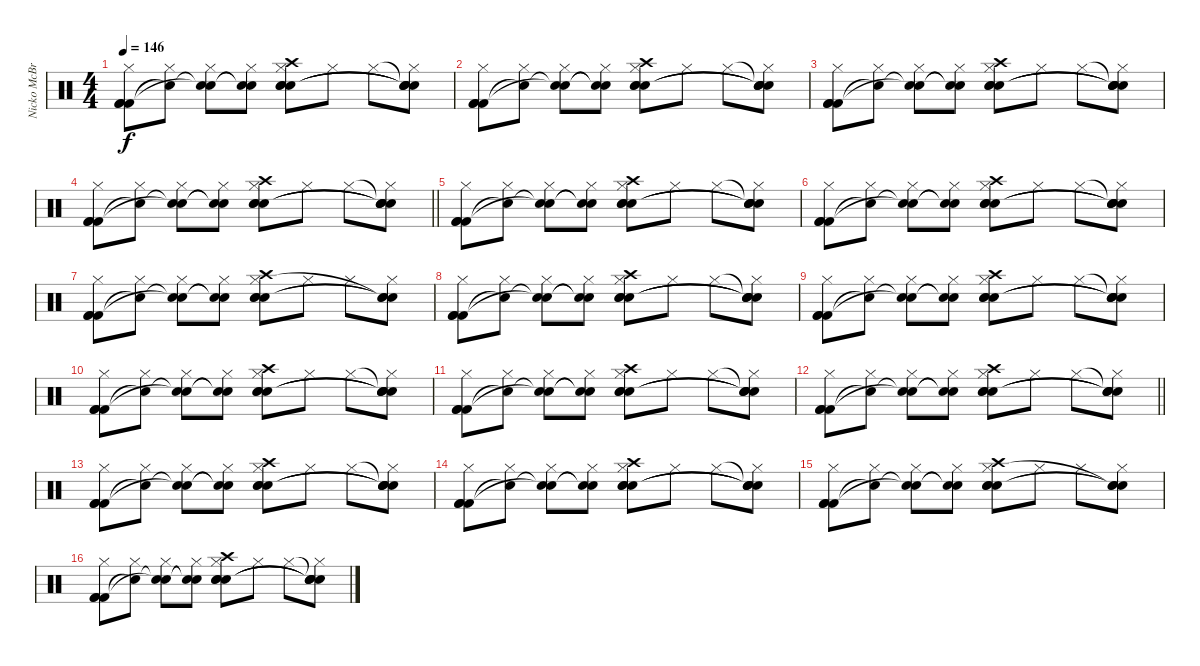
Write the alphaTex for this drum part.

\track ("Nicko McBrain" "Nicko McBr") {instrument percussion}
\staff {score}
\articulation defaults
\ts (4 4)
\tempo 146
\clef neutral
\ks c
("Hi-Hat (closed)" "Kick (hit) 2" "Kick (hit) 2" "Kick (hit) 2").8{dy f} ("Hi-Hat (closed)" "Snare (hit)"{t}).8 ("Hi-Hat (closed)" "Snare (hit)"{t} "Snare (hit)"{t}).8 ("Hi-Hat (closed)" "Snare (hit)"{t} "Snare (hit)"{t}).8 ("Crash high (hit)" "Hi-Hat (closed)" "Snare (hit) 2" "Snare (hit) 2" "Snare (hit) 2").8 "Hi-Hat (closed)".8 "Hi-Hat (closed)".8 ("Snare (hit)"{t} "Hi-Hat (closed)" "Snare (hit)"{t} "Snare (hit)"{t} "Snare (hit)"{t}).8 |
("Hi-Hat (closed)" "Kick (hit) 2" "Kick (hit) 2" "Kick (hit) 2").8 ("Hi-Hat (closed)" "Snare (hit)"{t}).8 ("Hi-Hat (closed)" "Snare (hit)"{t} "Snare (hit)"{t}).8 ("Hi-Hat (closed)" "Snare (hit)"{t} "Snare (hit)"{t}).8 ("Crash high (hit)" "Hi-Hat (closed)" "Snare (hit) 2" "Snare (hit) 2" "Snare (hit) 2").8 "Hi-Hat (closed)".8 "Hi-Hat (closed)".8 ("Snare (hit)"{t} "Hi-Hat (closed)" "Snare (hit)"{t} "Snare (hit)"{t} "Snare (hit)"{t}).8 |
("Hi-Hat (closed)" "Kick (hit) 2" "Kick (hit) 2" "Kick (hit) 2").8 ("Hi-Hat (closed)" "Snare (hit)"{t}).8 ("Hi-Hat (closed)" "Snare (hit)"{t} "Snare (hit)"{t}).8 ("Hi-Hat (closed)" "Snare (hit)"{t} "Snare (hit)"{t}).8 ("Crash high (hit)" "Hi-Hat (closed)" "Snare (hit) 2" "Snare (hit) 2" "Snare (hit) 2").8 "Hi-Hat (closed)".8 "Hi-Hat (closed)".8 ("Snare (hit)"{t} "Hi-Hat (closed)" "Snare (hit)"{t} "Snare (hit)"{t} "Snare (hit)"{t}).8 |
\barLineRight lightlight
("Hi-Hat (closed)" "Kick (hit) 2" "Kick (hit) 2" "Kick (hit) 2").8 ("Hi-Hat (closed)" "Snare (hit)"{t}).8 ("Hi-Hat (closed)" "Snare (hit)"{t} "Snare (hit)"{t}).8 ("Hi-Hat (closed)" "Snare (hit)"{t} "Snare (hit)"{t}).8 ("Crash high (hit)" "Hi-Hat (closed)" "Snare (hit) 2" "Snare (hit) 2" "Snare (hit) 2").8 "Hi-Hat (closed)".8 "Hi-Hat (closed)".8 ("Snare (hit)"{t} "Hi-Hat (closed)" "Snare (hit)"{t} "Snare (hit)"{t} "Snare (hit)"{t}).8 |
("Hi-Hat (closed)" "Kick (hit) 2" "Kick (hit) 2" "Kick (hit) 2").8 ("Hi-Hat (closed)" "Snare (hit)"{t}).8 ("Hi-Hat (closed)" "Snare (hit)"{t} "Snare (hit)"{t}).8 ("Hi-Hat (closed)" "Snare (hit)"{t} "Snare (hit)"{t}).8 ("Crash high (hit)" "Hi-Hat (closed)" "Snare (hit) 2" "Snare (hit) 2" "Snare (hit) 2").8 "Hi-Hat (closed)".8 "Hi-Hat (closed)".8 ("Snare (hit)"{t} "Hi-Hat (closed)" "Snare (hit)"{t} "Snare (hit)"{t} "Snare (hit)"{t}).8 |
("Hi-Hat (closed)" "Kick (hit) 2" "Kick (hit) 2" "Kick (hit) 2").8 ("Hi-Hat (closed)" "Snare (hit)"{t}).8 ("Hi-Hat (closed)" "Snare (hit)"{t} "Snare (hit)"{t}).8 ("Hi-Hat (closed)" "Snare (hit)"{t} "Snare (hit)"{t}).8 ("Crash high (hit)" "Hi-Hat (closed)" "Snare (hit) 2" "Snare (hit) 2" "Snare (hit) 2").8 "Hi-Hat (closed)".8 "Hi-Hat (closed)".8 ("Snare (hit)"{t} "Hi-Hat (closed)" "Snare (hit)"{t} "Snare (hit)"{t} "Snare (hit)"{t}).8 |
("Hi-Hat (closed)" "Kick (hit) 2" "Kick (hit) 2" "Kick (hit) 2").8 ("Hi-Hat (closed)" "Snare (hit)"{t}).8 ("Hi-Hat (closed)" "Snare (hit)"{t} "Snare (hit)"{t}).8 ("Hi-Hat (closed)" "Snare (hit)"{t} "Snare (hit)"{t}).8 ("Crash high (hit)" "Hi-Hat (closed)" "Snare (hit) 2" "Snare (hit) 2" "Snare (hit) 2").8 "Hi-Hat (closed)".8 "Hi-Hat (closed)".8 ("Hi-Hat (closed)" "Snare (hit)"{t} "Snare (hit)"{t} "Snare (hit)"{t}).8 |
("Hi-Hat (closed)" "Kick (hit) 2" "Kick (hit) 2" "Kick (hit) 2").8 ("Hi-Hat (closed)" "Snare (hit)"{t}).8 ("Hi-Hat (closed)" "Snare (hit)"{t} "Snare (hit)"{t}).8 ("Hi-Hat (closed)" "Snare (hit)"{t} "Snare (hit)"{t}).8 ("Crash high (hit)" "Hi-Hat (closed)" "Snare (hit) 2" "Snare (hit) 2" "Snare (hit) 2").8 "Hi-Hat (closed)".8 "Hi-Hat (closed)".8 ("Snare (hit)"{t} "Hi-Hat (closed)" "Snare (hit)"{t} "Snare (hit)"{t} "Snare (hit)"{t}).8 |
("Hi-Hat (closed)" "Kick (hit) 2" "Kick (hit) 2" "Kick (hit) 2").8 ("Hi-Hat (closed)" "Snare (hit)"{t}).8 ("Hi-Hat (closed)" "Snare (hit)"{t} "Snare (hit)"{t}).8 ("Hi-Hat (closed)" "Snare (hit)"{t} "Snare (hit)"{t}).8 ("Crash high (hit)" "Hi-Hat (closed)" "Snare (hit) 2" "Snare (hit) 2" "Snare (hit) 2").8 "Hi-Hat (closed)".8 "Hi-Hat (closed)".8 ("Snare (hit)"{t} "Hi-Hat (closed)" "Snare (hit)"{t} "Snare (hit)"{t} "Snare (hit)"{t}).8 |
("Hi-Hat (closed)" "Kick (hit) 2" "Kick (hit) 2" "Kick (hit) 2").8 ("Hi-Hat (closed)" "Snare (hit)"{t}).8 ("Hi-Hat (closed)" "Snare (hit)"{t} "Snare (hit)"{t}).8 ("Hi-Hat (closed)" "Snare (hit)"{t} "Snare (hit)"{t}).8 ("Crash high (hit)" "Hi-Hat (closed)" "Snare (hit) 2" "Snare (hit) 2" "Snare (hit) 2").8 "Hi-Hat (closed)".8 "Hi-Hat (closed)".8 ("Snare (hit)"{t} "Hi-Hat (closed)" "Snare (hit)"{t} "Snare (hit)"{t} "Snare (hit)"{t}).8 |
("Hi-Hat (closed)" "Kick (hit) 2" "Kick (hit) 2" "Kick (hit) 2").8 ("Hi-Hat (closed)" "Snare (hit)"{t}).8 ("Hi-Hat (closed)" "Snare (hit)"{t} "Snare (hit)"{t}).8 ("Hi-Hat (closed)" "Snare (hit)"{t} "Snare (hit)"{t}).8 ("Crash high (hit)" "Hi-Hat (closed)" "Snare (hit) 2" "Snare (hit) 2" "Snare (hit) 2").8 "Hi-Hat (closed)".8 "Hi-Hat (closed)".8 ("Snare (hit)"{t} "Hi-Hat (closed)" "Snare (hit)"{t} "Snare (hit)"{t} "Snare (hit)"{t}).8 |
\barLineRight lightlight
("Hi-Hat (closed)" "Kick (hit) 2" "Kick (hit) 2" "Kick (hit) 2").8 ("Hi-Hat (closed)" "Snare (hit)"{t}).8 ("Hi-Hat (closed)" "Snare (hit)"{t} "Snare (hit)"{t}).8 ("Hi-Hat (closed)" "Snare (hit)"{t} "Snare (hit)"{t}).8 ("Crash high (hit)" "Hi-Hat (closed)" "Snare (hit) 2" "Snare (hit) 2" "Snare (hit) 2").8 "Hi-Hat (closed)".8 "Hi-Hat (closed)".8 ("Snare (hit)"{t} "Hi-Hat (closed)" "Snare (hit)"{t} "Snare (hit)"{t} "Snare (hit)"{t}).8 |
("Hi-Hat (closed)" "Kick (hit) 2" "Kick (hit) 2" "Kick (hit) 2").8 ("Hi-Hat (closed)" "Snare (hit)"{t}).8 ("Hi-Hat (closed)" "Snare (hit)"{t} "Snare (hit)"{t}).8 ("Hi-Hat (closed)" "Snare (hit)"{t} "Snare (hit)"{t}).8 ("Crash high (hit)" "Hi-Hat (closed)" "Snare (hit) 2" "Snare (hit) 2" "Snare (hit) 2").8 "Hi-Hat (closed)".8 "Hi-Hat (closed)".8 ("Snare (hit)"{t} "Hi-Hat (closed)" "Snare (hit)"{t} "Snare (hit)"{t} "Snare (hit)"{t}).8 |
("Hi-Hat (closed)" "Kick (hit) 2" "Kick (hit) 2" "Kick (hit) 2").8 ("Hi-Hat (closed)" "Snare (hit)"{t}).8 ("Hi-Hat (closed)" "Snare (hit)"{t} "Snare (hit)"{t}).8 ("Hi-Hat (closed)" "Snare (hit)"{t} "Snare (hit)"{t}).8 ("Crash high (hit)" "Hi-Hat (closed)" "Snare (hit) 2" "Snare (hit) 2" "Snare (hit) 2").8 "Hi-Hat (closed)".8 "Hi-Hat (closed)".8 ("Snare (hit)"{t} "Hi-Hat (closed)" "Snare (hit)"{t} "Snare (hit)"{t} "Snare (hit)"{t}).8 |
("Hi-Hat (closed)" "Kick (hit) 2" "Kick (hit) 2" "Kick (hit) 2").8 ("Hi-Hat (closed)" "Snare (hit)"{t}).8 ("Hi-Hat (closed)" "Snare (hit)"{t} "Snare (hit)"{t}).8 ("Hi-Hat (closed)" "Snare (hit)"{t} "Snare (hit)"{t}).8 ("Crash high (hit)" "Hi-Hat (closed)" "Snare (hit) 2" "Snare (hit) 2" "Snare (hit) 2").8 "Hi-Hat (closed)".8 "Hi-Hat (closed)".8 ("Hi-Hat (closed)" "Snare (hit)"{t} "Snare (hit)"{t} "Snare (hit)"{t}).8 |
("Hi-Hat (closed)" "Kick (hit) 2" "Kick (hit) 2" "Kick (hit) 2").8 ("Hi-Hat (closed)" "Snare (hit)"{t}).8 ("Hi-Hat (closed)" "Snare (hit)"{t} "Snare (hit)"{t}).8 ("Hi-Hat (closed)" "Snare (hit)"{t} "Snare (hit)"{t}).8 ("Crash high (hit)" "Hi-Hat (closed)" "Snare (hit) 2" "Snare (hit) 2" "Snare (hit) 2").8 "Hi-Hat (closed)".8 "Hi-Hat (closed)".8 ("Snare (hit)"{t} "Hi-Hat (closed)" "Snare (hit)"{t} "Snare (hit)"{t} "Snare (hit)"{t}).8
